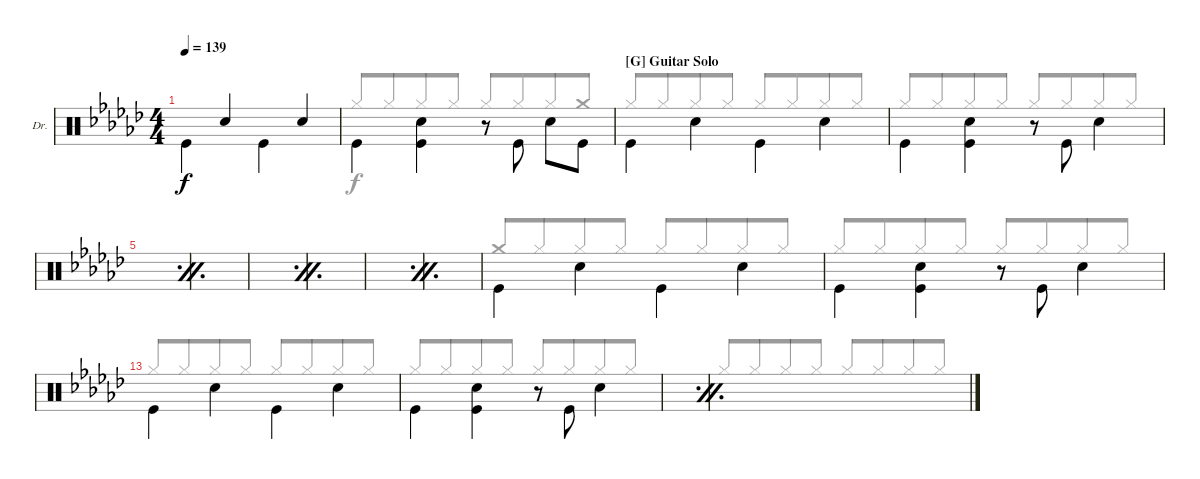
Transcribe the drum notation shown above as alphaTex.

\bracketExtendMode groupsimilarinstruments
\firstSystemTrackNameOrientation horizontal
\otherSystemsTrackNameOrientation horizontal
\defaultBarNumberDisplay FirstOfSystem
\track ("Drums" "Dr.") {instrument percussion}
\staff {score}
\articulation defaults
\voice
\ts (4 4)
\tempo 139
\clef neutral
\ks gb "Kick (hit)".4{dy f beam invert} "Snare (hit) 2".4{beam invert} "Kick (hit)".4{beam invert} "Snare (hit) 2".4{beam invert}
|
"Kick (hit)".4{beam invert} ("Snare (hit) 2" "Kick (hit)").4{beam invert} r.8 "Kick (hit)".8{beam invert} "Snare (hit) 2".8{beam invert} "Kick (hit)".8 |
\section ("G" "Guitar Solo")
"Kick (hit)".4{beam invert} "Snare (hit) 2".4{beam invert} "Kick (hit)".4{beam invert} "Snare (hit) 2".4{beam invert} |
"Kick (hit)".4{beam invert} ("Snare (hit) 2" "Kick (hit)").4{beam invert} r.8 "Kick (hit)".8{beam invert} "Snare (hit) 2".4{beam invert} |
\simile firstofdouble
|
\simile secondofdouble
|
\simile firstofdouble
|
\simile secondofdouble
|
\simile firstofdouble
|
\simile secondofdouble
|
\simile none "Kick (hit)".4{beam invert} "Snare (hit) 2".4{beam invert} "Kick (hit)".4{beam invert} "Snare (hit) 2".4{beam invert}
|
"Kick (hit)".4{beam invert} ("Snare (hit) 2" "Kick (hit)").4{beam invert} r.8 "Kick (hit)".8{beam invert} "Snare (hit) 2".4{beam invert} |
"Kick (hit)".4{beam invert} "Snare (hit) 2".4{beam invert} "Kick (hit)".4{beam invert} "Snare (hit) 2".4{beam invert} |
"Kick (hit)".4{beam invert} ("Snare (hit) 2" "Kick (hit)").4{beam invert} r.8 "Kick (hit)".8{beam invert} "Snare (hit) 2".4{beam invert} |
\simile firstofdouble
|
\simile secondofdouble
\voice
\clef neutral
\ottava regular
\simile none
\ks gb "Hi-Hat (closed)".8{dy f beam invert} "Hi-Hat (closed)".8{beam merge} "Hi-Hat (closed)".8 "Hi-Hat (closed)".8 "Hi-Hat (closed)".8{beam invert} "Hi-Hat (closed)".8{beam merge} "Hi-Hat (closed)".8 "Hi-Hat (closed)".8
|
"Hi-Hat (closed)".8{beam invert beam merge} "Hi-Hat (closed)".8{beam merge} "Hi-Hat (closed)".8 "Hi-Hat (closed)".8 "Hi-Hat (closed)".8{beam invert} "Hi-Hat (closed)".8{beam merge} "Hi-Hat (closed)".8{beam merge} "Crash medium (hit)".8 |
"Hi-Hat (closed)".8{beam invert} "Hi-Hat (closed)".8{beam merge} "Hi-Hat (closed)".8 "Hi-Hat (closed)".8 "Hi-Hat (closed)".8{beam invert} "Hi-Hat (closed)".8{beam merge} "Hi-Hat (closed)".8 "Hi-Hat (closed)".8 |
"Hi-Hat (closed)".8{beam invert} "Hi-Hat (closed)".8{beam merge} "Hi-Hat (closed)".8 "Hi-Hat (closed)".8 "Hi-Hat (closed)".8{beam invert beam merge} "Hi-Hat (closed)".8{beam merge} "Hi-Hat (closed)".8{beam merge} "Hi-Hat (closed)".8 |
\simile firstofdouble
|
\simile secondofdouble
|
\simile firstofdouble
|
\simile secondofdouble
|
\simile firstofdouble
|
\simile secondofdouble
|
\simile none "Crash medium (hit)".8{beam invert} "Hi-Hat (closed)".8{beam merge} "Hi-Hat (closed)".8 "Hi-Hat (closed)".8 "Hi-Hat (closed)".8{beam invert} "Hi-Hat (closed)".8{beam merge} "Hi-Hat (closed)".8 "Hi-Hat (closed)".8
|
"Hi-Hat (closed)".8{beam invert} "Hi-Hat (closed)".8{beam merge} "Hi-Hat (closed)".8 "Hi-Hat (closed)".8 "Hi-Hat (closed)".8{beam invert beam merge} "Hi-Hat (closed)".8{beam merge} "Hi-Hat (closed)".8{beam merge} "Hi-Hat (closed)".8 |
"Hi-Hat (closed)".8{beam invert} "Hi-Hat (closed)".8{beam merge} "Hi-Hat (closed)".8 "Hi-Hat (closed)".8 "Hi-Hat (closed)".8{beam invert} "Hi-Hat (closed)".8{beam merge} "Hi-Hat (closed)".8 "Hi-Hat (closed)".8 |
"Hi-Hat (closed)".8{beam invert beam merge} "Hi-Hat (closed)".8{beam merge} "Hi-Hat (closed)".8 "Hi-Hat (closed)".8 "Hi-Hat (closed)".8{beam invert} "Hi-Hat (closed)".8{beam merge} "Hi-Hat (closed)".8{beam merge} "Hi-Hat (closed)".8 |
\simile firstofdouble
|
\simile secondofdouble
